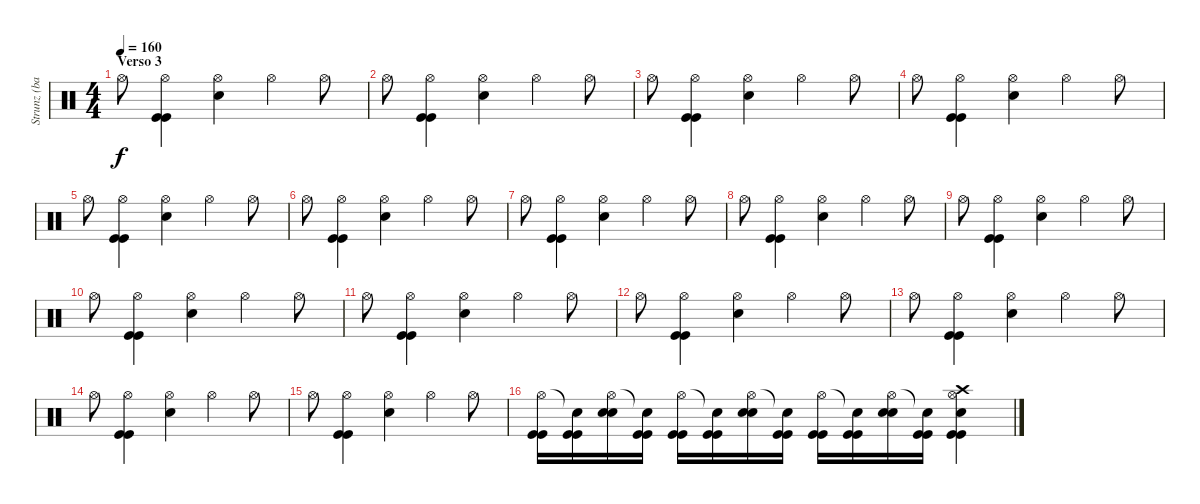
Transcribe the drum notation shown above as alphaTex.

\track ("Strunz (bateria)" "Strunz (ba") {instrument percussion}
\staff {score}
\articulation defaults
\ts (4 4)
\section ("" "Verso 3")
\tempo 160
\clef neutral
\ks c "Hi-Hat (open)".8{dy f}
("Hi-Hat (open)" "Kick (hit)" "Kick (hit)").4 ("Hi-Hat (open)" "Electric Snare (hit)").4 "Hi-Hat (open)".4 "Hi-Hat (open)".8 |
"Hi-Hat (open)".8 ("Hi-Hat (open)" "Kick (hit)" "Kick (hit)").4 ("Hi-Hat (open)" "Electric Snare (hit)").4 "Hi-Hat (open)".4 "Hi-Hat (open)".8 |
"Hi-Hat (open)".8 ("Hi-Hat (open)" "Kick (hit)" "Kick (hit)").4 ("Hi-Hat (open)" "Electric Snare (hit)").4 "Hi-Hat (open)".4 "Hi-Hat (open)".8 |
"Hi-Hat (open)".8 ("Hi-Hat (open)" "Kick (hit)" "Kick (hit)").4 ("Hi-Hat (open)" "Electric Snare (hit)").4 "Hi-Hat (open)".4 "Hi-Hat (open)".8 |
"Hi-Hat (open)".8 ("Hi-Hat (open)" "Kick (hit)" "Kick (hit)").4 ("Hi-Hat (open)" "Electric Snare (hit)").4 "Hi-Hat (open)".4 "Hi-Hat (open)".8 |
"Hi-Hat (open)".8 ("Hi-Hat (open)" "Kick (hit)" "Kick (hit)").4 ("Hi-Hat (open)" "Electric Snare (hit)").4 "Hi-Hat (open)".4 "Hi-Hat (open)".8 |
"Hi-Hat (open)".8 ("Hi-Hat (open)" "Kick (hit)" "Kick (hit)").4 ("Hi-Hat (open)" "Electric Snare (hit)").4 "Hi-Hat (open)".4 "Hi-Hat (open)".8 |
"Hi-Hat (open)".8 ("Hi-Hat (open)" "Kick (hit)" "Kick (hit)").4 ("Hi-Hat (open)" "Electric Snare (hit)").4 "Hi-Hat (open)".4 "Hi-Hat (open)".8 |
"Hi-Hat (open)".8 ("Hi-Hat (open)" "Kick (hit)" "Kick (hit)").4 ("Hi-Hat (open)" "Electric Snare (hit)").4 "Hi-Hat (open)".4 "Hi-Hat (open)".8 |
"Hi-Hat (open)".8 ("Hi-Hat (open)" "Kick (hit)" "Kick (hit)").4 ("Hi-Hat (open)" "Electric Snare (hit)").4 "Hi-Hat (open)".4 "Hi-Hat (open)".8 |
"Hi-Hat (open)".8 ("Hi-Hat (open)" "Kick (hit)" "Kick (hit)").4 ("Hi-Hat (open)" "Electric Snare (hit)").4 "Hi-Hat (open)".4 "Hi-Hat (open)".8 |
"Hi-Hat (open)".8 ("Hi-Hat (open)" "Kick (hit)" "Kick (hit)").4 ("Hi-Hat (open)" "Electric Snare (hit)").4 "Hi-Hat (open)".4 "Hi-Hat (open)".8 |
"Hi-Hat (open)".8 ("Hi-Hat (open)" "Kick (hit)" "Kick (hit)").4 ("Hi-Hat (open)" "Electric Snare (hit)").4 "Hi-Hat (open)".4 "Hi-Hat (open)".8 |
"Hi-Hat (open)".8 ("Hi-Hat (open)" "Kick (hit)" "Kick (hit)").4 ("Hi-Hat (open)" "Electric Snare (hit)").4 "Hi-Hat (open)".4 "Hi-Hat (open)".8 |
"Hi-Hat (open)".8 ("Hi-Hat (open)" "Kick (hit)" "Kick (hit)").4 ("Hi-Hat (open)" "Electric Snare (hit)").4 "Hi-Hat (open)".4 "Hi-Hat (open)".8 |
("Hi-Hat (open)" "Kick (hit)" "Kick (hit)").16 ("Snare (hit)"{t} "Kick (hit)" "Kick (hit)").16 ("Hi-Hat (open)" "Snare (hit) 2" "Snare (hit) 2").16 ("Snare (hit)"{t} "Kick (hit)" "Kick (hit)").16 ("Hi-Hat (open)" "Kick (hit)" "Kick (hit)").16 ("Snare (hit)"{t} "Kick (hit)" "Kick (hit)").16 ("Hi-Hat (open)" "Snare (hit) 2" "Snare (hit) 2").16 ("Snare (hit)"{t} "Kick (hit)" "Kick (hit)").16 ("Hi-Hat (open)" "Kick (hit)" "Kick (hit)").16 ("Snare (hit)"{t} "Kick (hit)" "Kick (hit)").16 ("Hi-Hat (open)" "Snare (hit) 2" "Snare (hit) 2").16 ("Snare (hit)"{t} "Kick (hit)" "Kick (hit)").16 ("Crash high (hit)" "Electric Snare (hit)" "Hi-Hat (open)" "Kick (hit)" "Kick (hit)").4
